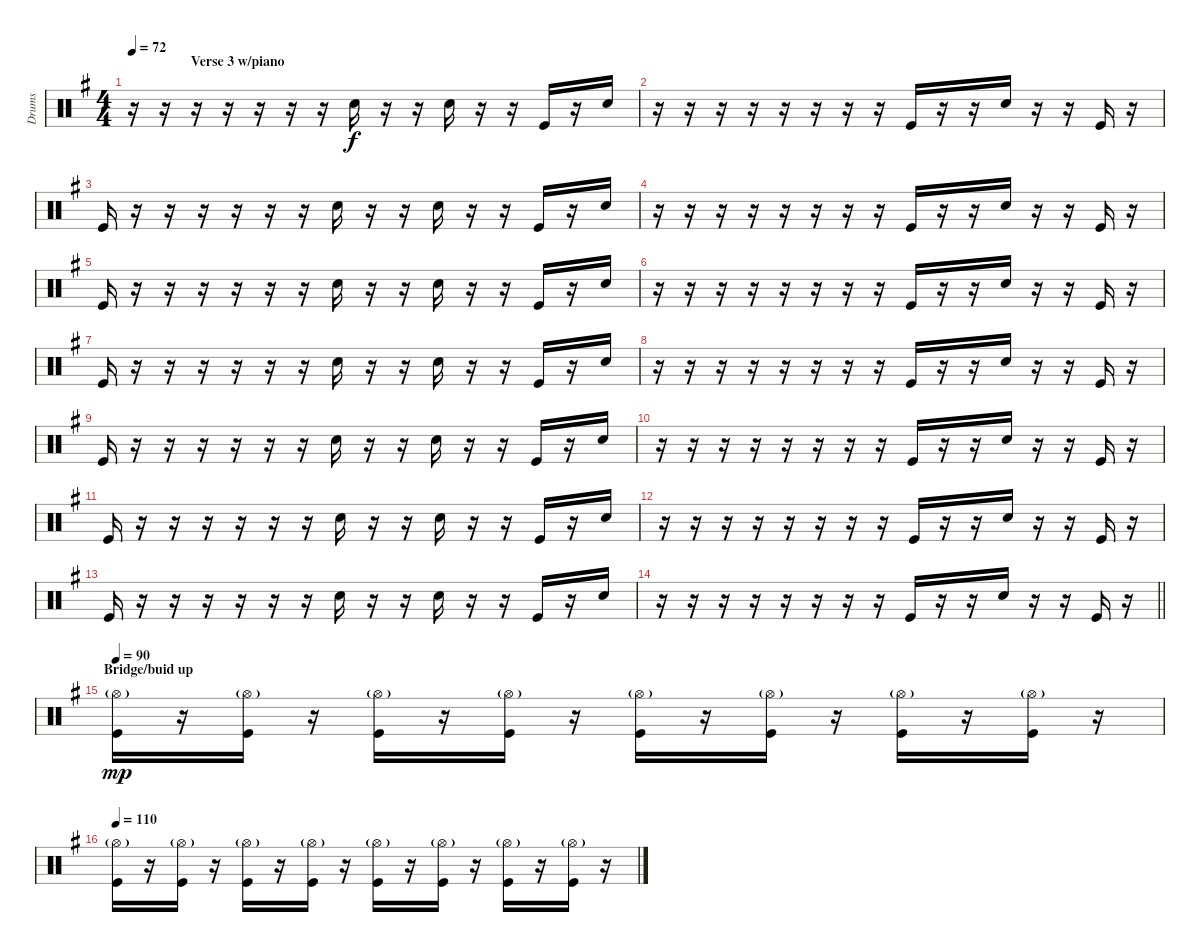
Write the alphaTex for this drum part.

\track ("Drums" "Drums") {instrument percussion}
\staff {score}
\articulation defaults
\ts (4 4)
\section ("" "                  Verse 3 w/piano")
\tempo 72
\clef neutral
\ks g
r.16{dy f} r.16 r.16 r.16 r.16 r.16 r.16 "Electric Snare (hit)".16 r.16 r.16 "Electric Snare (hit)".16 r.16 r.16 "Kick (hit)".16 r.16 "Electric Snare (hit)".16 |
r.16 r.16 r.16 r.16 r.16 r.16 r.16 r.16 "Kick (hit)".16 r.16 r.16 "Electric Snare (hit)".16 r.16 r.16 "Kick (hit)".16 r.16 |
"Kick (hit)".16 r.16 r.16 r.16 r.16 r.16 r.16 "Electric Snare (hit)".16 r.16 r.16 "Electric Snare (hit)".16 r.16 r.16 "Kick (hit)".16 r.16 "Electric Snare (hit)".16 |
r.16 r.16 r.16 r.16 r.16 r.16 r.16 r.16 "Kick (hit)".16 r.16 r.16 "Electric Snare (hit)".16 r.16 r.16 "Kick (hit)".16 r.16 |
"Kick (hit)".16 r.16 r.16 r.16 r.16 r.16 r.16 "Electric Snare (hit)".16 r.16 r.16 "Electric Snare (hit)".16 r.16 r.16 "Kick (hit)".16 r.16 "Electric Snare (hit)".16 |
r.16 r.16 r.16 r.16 r.16 r.16 r.16 r.16 "Kick (hit)".16 r.16 r.16 "Electric Snare (hit)".16 r.16 r.16 "Kick (hit)".16 r.16 |
"Kick (hit)".16 r.16 r.16 r.16 r.16 r.16 r.16 "Electric Snare (hit)".16 r.16 r.16 "Electric Snare (hit)".16 r.16 r.16 "Kick (hit)".16 r.16 "Electric Snare (hit)".16 |
r.16 r.16 r.16 r.16 r.16 r.16 r.16 r.16 "Kick (hit)".16 r.16 r.16 "Electric Snare (hit)".16 r.16 r.16 "Kick (hit)".16 r.16 |
"Kick (hit)".16 r.16 r.16 r.16 r.16 r.16 r.16 "Electric Snare (hit)".16 r.16 r.16 "Electric Snare (hit)".16 r.16 r.16 "Kick (hit)".16 r.16 "Electric Snare (hit)".16 |
r.16 r.16 r.16 r.16 r.16 r.16 r.16 r.16 "Kick (hit)".16 r.16 r.16 "Electric Snare (hit)".16 r.16 r.16 "Kick (hit)".16 r.16 |
"Kick (hit)".16 r.16 r.16 r.16 r.16 r.16 r.16 "Electric Snare (hit)".16 r.16 r.16 "Electric Snare (hit)".16 r.16 r.16 "Kick (hit)".16 r.16 "Electric Snare (hit)".16 |
r.16 r.16 r.16 r.16 r.16 r.16 r.16 r.16 "Kick (hit)".16 r.16 r.16 "Electric Snare (hit)".16 r.16 r.16 "Kick (hit)".16 r.16 |
"Kick (hit)".16 r.16 r.16 r.16 r.16 r.16 r.16 "Electric Snare (hit)".16 r.16 r.16 "Electric Snare (hit)".16 r.16 r.16 "Kick (hit)".16 r.16 "Electric Snare (hit)".16 |
\barLineRight lightlight
r.16 r.16 r.16 r.16 r.16 r.16 r.16 r.16 "Kick (hit)".16 r.16 r.16 "Electric Snare (hit)".16 r.16 r.16 "Kick (hit)".16 r.16 |
\section ("" "Bridge/buid up")
\tempo 90
("Hi-Hat (open)"{g} "Kick (hit)").16{dy mp} r.16 ("Hi-Hat (open)"{g} "Kick (hit)").16 r.16 ("Hi-Hat (open)"{g} "Kick (hit)").16 r.16 ("Hi-Hat (open)"{g} "Kick (hit)").16 r.16 ("Hi-Hat (open)"{g} "Kick (hit)").16 r.16 ("Hi-Hat (open)"{g} "Kick (hit)").16 r.16 ("Hi-Hat (open)"{g} "Kick (hit)").16 r.16 ("Hi-Hat (open)"{g} "Kick (hit)").16 r.16 |
\tempo 110
("Hi-Hat (open)"{g} "Kick (hit)").16 r.16 ("Hi-Hat (open)"{g} "Kick (hit)").16 r.16 ("Hi-Hat (open)"{g} "Kick (hit)").16 r.16 ("Hi-Hat (open)"{g} "Kick (hit)").16 r.16 ("Hi-Hat (open)"{g} "Kick (hit)").16 r.16 ("Hi-Hat (open)"{g} "Kick (hit)").16 r.16 ("Hi-Hat (open)"{g} "Kick (hit)").16 r.16 ("Hi-Hat (open)"{g} "Kick (hit)").16 r.16
